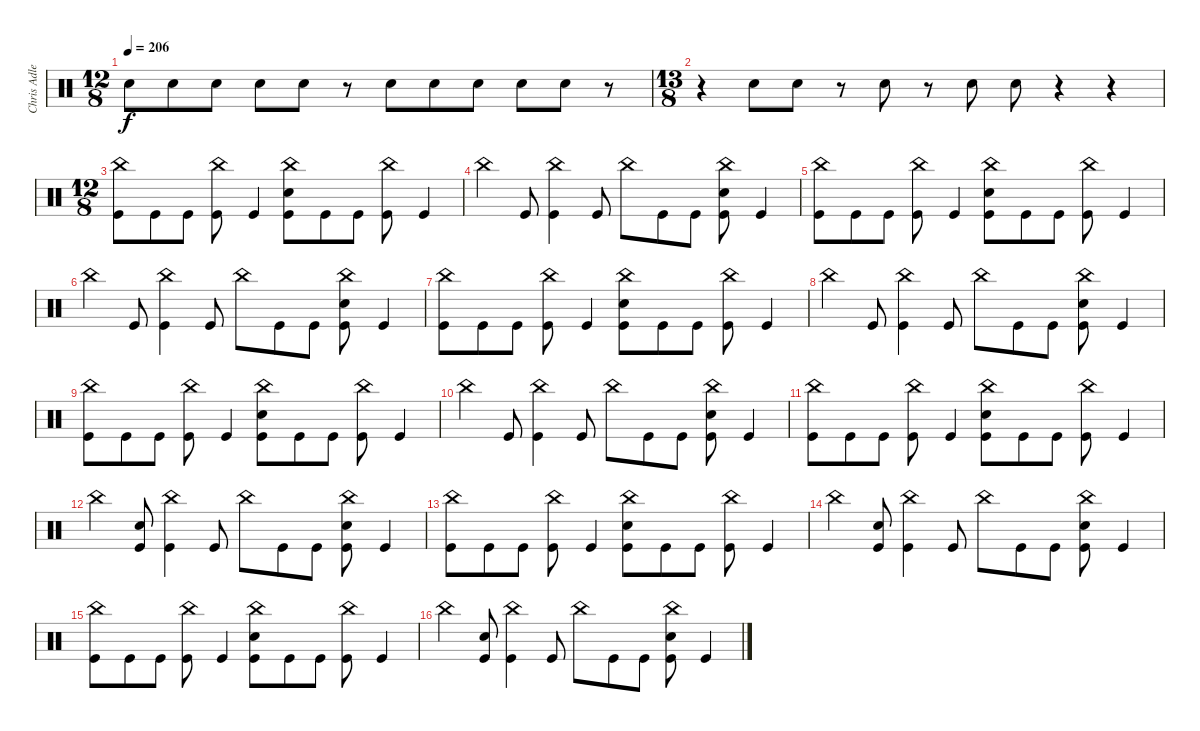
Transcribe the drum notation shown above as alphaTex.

\track ("Chris Adler" "Chris Adle") {instrument percussion}
\staff {score}
\articulation defaults
\ts (12 8)
\tempo 206
\clef neutral
\ks c "Snare (hit) 2".8{dy f} "Snare (hit) 2".8 "Snare (hit) 2".8 "Snare (hit) 2".8 "Snare (hit) 2".8
r.8 "Snare (hit) 2".8 "Snare (hit) 2".8 "Snare (hit) 2".8 "Snare (hit) 2".8 "Snare (hit) 2".8 r.8 |
\ts (13 8)
r.4 "Snare (hit) 2".8 "Snare (hit) 2".8 r.8 "Snare (hit) 2".8 r.8 "Snare (hit) 2".8 "Snare (hit) 2".8 r.4 r.4 |
\ts (12 8)
("Kick (hit)" "China (hit)").8 "Kick (hit)".8 "Kick (hit)".8 ("Kick (hit)" "China (hit)").8 "Kick (hit)".4 ("Snare (hit) 2" "Kick (hit)" "China (hit)").8 "Kick (hit)".8 "Kick (hit)".8 ("Kick (hit)" "China (hit)").8 "Kick (hit)".4 |
"China (hit)".4 "Kick (hit)".8 ("Kick (hit)" "China (hit)").4 "Kick (hit)".8 "China (hit)".8 "Kick (hit)".8 "Kick (hit)".8 ("Snare (hit) 2" "Kick (hit)" "China (hit)").8 "Kick (hit)".4 |
("Kick (hit)" "China (hit)").8 "Kick (hit)".8 "Kick (hit)".8 ("Kick (hit)" "China (hit)").8 "Kick (hit)".4 ("Snare (hit) 2" "Kick (hit)" "China (hit)").8 "Kick (hit)".8 "Kick (hit)".8 ("Kick (hit)" "China (hit)").8 "Kick (hit)".4 |
"China (hit)".4 "Kick (hit)".8 ("Kick (hit)" "China (hit)").4 "Kick (hit)".8 "China (hit)".8 "Kick (hit)".8 "Kick (hit)".8 ("Snare (hit) 2" "Kick (hit)" "China (hit)").8 "Kick (hit)".4 |
("Kick (hit)" "China (hit)").8 "Kick (hit)".8 "Kick (hit)".8 ("Kick (hit)" "China (hit)").8 "Kick (hit)".4 ("Snare (hit) 2" "Kick (hit)" "China (hit)").8 "Kick (hit)".8 "Kick (hit)".8 ("Kick (hit)" "China (hit)").8 "Kick (hit)".4 |
"China (hit)".4 "Kick (hit)".8 ("Kick (hit)" "China (hit)").4 "Kick (hit)".8 "China (hit)".8 "Kick (hit)".8 "Kick (hit)".8 ("Snare (hit) 2" "Kick (hit)" "China (hit)").8 "Kick (hit)".4 |
("Kick (hit)" "China (hit)").8 "Kick (hit)".8 "Kick (hit)".8 ("Kick (hit)" "China (hit)").8 "Kick (hit)".4 ("Snare (hit) 2" "Kick (hit)" "China (hit)").8 "Kick (hit)".8 "Kick (hit)".8 ("Kick (hit)" "China (hit)").8 "Kick (hit)".4 |
"China (hit)".4 "Kick (hit)".8 ("Kick (hit)" "China (hit)").4 "Kick (hit)".8 "China (hit)".8 "Kick (hit)".8 "Kick (hit)".8 ("Snare (hit) 2" "Kick (hit)" "China (hit)").8 "Kick (hit)".4 |
("Kick (hit)" "China (hit)").8 "Kick (hit)".8 "Kick (hit)".8 ("Kick (hit)" "China (hit)").8 "Kick (hit)".4 ("Snare (hit) 2" "Kick (hit)" "China (hit)").8 "Kick (hit)".8 "Kick (hit)".8 ("Kick (hit)" "China (hit)").8 "Kick (hit)".4 |
"China (hit)".4 ("Kick (hit)" "Snare (hit) 2").8 ("Kick (hit)" "China (hit)").4 "Kick (hit)".8 "China (hit)".8 "Kick (hit)".8 "Kick (hit)".8 ("Snare (hit) 2" "Kick (hit)" "China (hit)").8 "Kick (hit)".4 |
("Kick (hit)" "China (hit)").8 "Kick (hit)".8 "Kick (hit)".8 ("Kick (hit)" "China (hit)").8 "Kick (hit)".4 ("Snare (hit) 2" "Kick (hit)" "China (hit)").8 "Kick (hit)".8 "Kick (hit)".8 ("Kick (hit)" "China (hit)").8 "Kick (hit)".4 |
"China (hit)".4 ("Kick (hit)" "Snare (hit) 2").8 ("Kick (hit)" "China (hit)").4 "Kick (hit)".8 "China (hit)".8 "Kick (hit)".8 "Kick (hit)".8 ("Snare (hit) 2" "Kick (hit)" "China (hit)").8 "Kick (hit)".4 |
("Kick (hit)" "China (hit)").8 "Kick (hit)".8 "Kick (hit)".8 ("Kick (hit)" "China (hit)").8 "Kick (hit)".4 ("Snare (hit) 2" "Kick (hit)" "China (hit)").8 "Kick (hit)".8 "Kick (hit)".8 ("Kick (hit)" "China (hit)").8 "Kick (hit)".4 |
"China (hit)".4 ("Kick (hit)" "Snare (hit) 2").8 ("Kick (hit)" "China (hit)").4 "Kick (hit)".8 "China (hit)".8 "Kick (hit)".8 "Kick (hit)".8 ("Snare (hit) 2" "Kick (hit)" "China (hit)").8 "Kick (hit)".4
